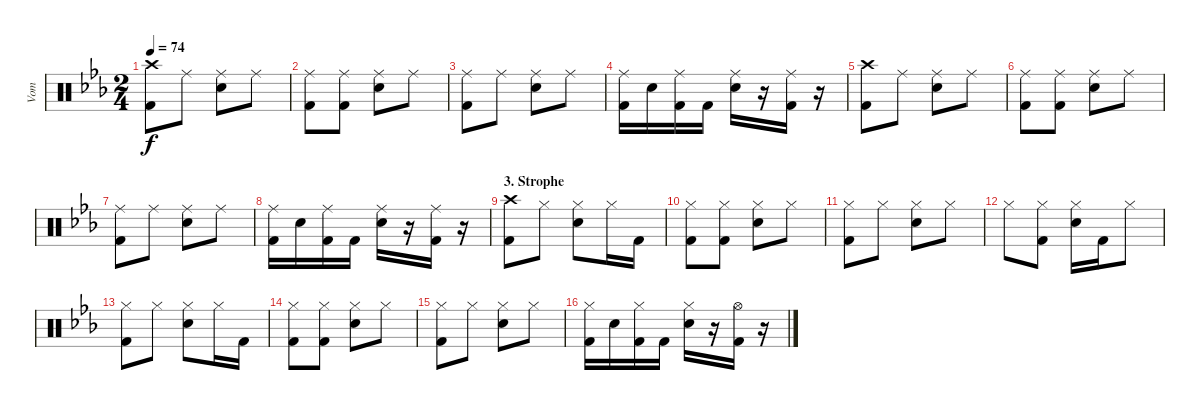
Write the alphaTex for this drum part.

\track ("Vom" "Vom") {instrument percussion}
\staff {score}
\articulation defaults
\ts (2 4)
\tempo 74
\clef neutral
\ks eb
("Crash high (hit)" "Kick (hit) 2").8{dy f} "Ride (middle)".8 ("Ride (middle)" "Snare (hit) 2").8 "Ride (middle)".8 |
("Ride (middle)" "Kick (hit) 2").8 ("Ride (middle)" "Kick (hit) 2").8 ("Ride (middle)" "Snare (hit) 2").8 "Ride (middle)".8 |
("Ride (middle)" "Kick (hit) 2").8 "Ride (middle)".8 ("Ride (middle)" "Snare (hit) 2").8 "Ride (middle)".8 |
("Ride (middle)" "Kick (hit) 2").16 "Snare (hit) 2".16 ("Ride (middle)" "Kick (hit) 2").16 "Kick (hit) 2".16 ("Ride (middle)" "Snare (hit) 2").16 r.16 ("Ride (middle)" "Kick (hit) 2").16 r.16 |
("Crash high (hit)" "Kick (hit) 2").8 "Ride (middle)".8 ("Ride (middle)" "Snare (hit) 2").8 "Ride (middle)".8 |
("Ride (middle)" "Kick (hit) 2").8 ("Ride (middle)" "Kick (hit) 2").8 ("Ride (middle)" "Snare (hit) 2").8 "Ride (middle)".8 |
("Ride (middle)" "Kick (hit) 2").8 "Ride (middle)".8 ("Ride (middle)" "Snare (hit) 2").8 "Ride (middle)".8 |
("Ride (middle)" "Kick (hit) 2").16 "Snare (hit) 2".16 ("Ride (middle)" "Kick (hit) 2").16 "Kick (hit) 2".16 ("Ride (middle)" "Snare (hit) 2").16 r.16 ("Ride (middle)" "Kick (hit) 2").16 r.16 |
\section ("" "3. Strophe")
("Crash high (hit)" "Kick (hit) 2").8 "Hi-Hat (closed)".8 ("Hi-Hat (closed)" "Snare (hit) 2").8 "Hi-Hat (closed)".16 "Kick (hit) 2".16 |
("Hi-Hat (closed)" "Kick (hit) 2").8 ("Hi-Hat (closed)" "Kick (hit) 2").8 ("Hi-Hat (closed)" "Snare (hit) 2").8 "Hi-Hat (closed)".8 |
("Hi-Hat (closed)" "Kick (hit) 2").8 "Hi-Hat (closed)".8 ("Hi-Hat (closed)" "Snare (hit) 2").8 "Hi-Hat (closed)".8 |
"Hi-Hat (closed)".8 ("Hi-Hat (closed)" "Kick (hit) 2").8 ("Hi-Hat (closed)" "Snare (hit) 2").16 "Kick (hit) 2".16 "Hi-Hat (closed)".8 |
("Hi-Hat (closed)" "Kick (hit) 2").8 "Hi-Hat (closed)".8 ("Hi-Hat (closed)" "Snare (hit) 2").8 "Hi-Hat (closed)".16 "Kick (hit) 2".16 |
("Hi-Hat (closed)" "Kick (hit) 2").8 ("Hi-Hat (closed)" "Kick (hit) 2").8 ("Hi-Hat (closed)" "Snare (hit) 2").8 "Hi-Hat (closed)".8 |
("Hi-Hat (closed)" "Kick (hit) 2").8 "Hi-Hat (closed)".8 ("Hi-Hat (closed)" "Snare (hit) 2").8 "Hi-Hat (closed)".8 |
("Hi-Hat (closed)" "Kick (hit) 2").16 "Snare (hit) 2".16 ("Hi-Hat (closed)" "Kick (hit) 2").16 "Kick (hit) 2".16 ("Hi-Hat (closed)" "Snare (hit) 2").16 r.16 ("Hi-Hat (open)" "Kick (hit) 2").16 r.16
